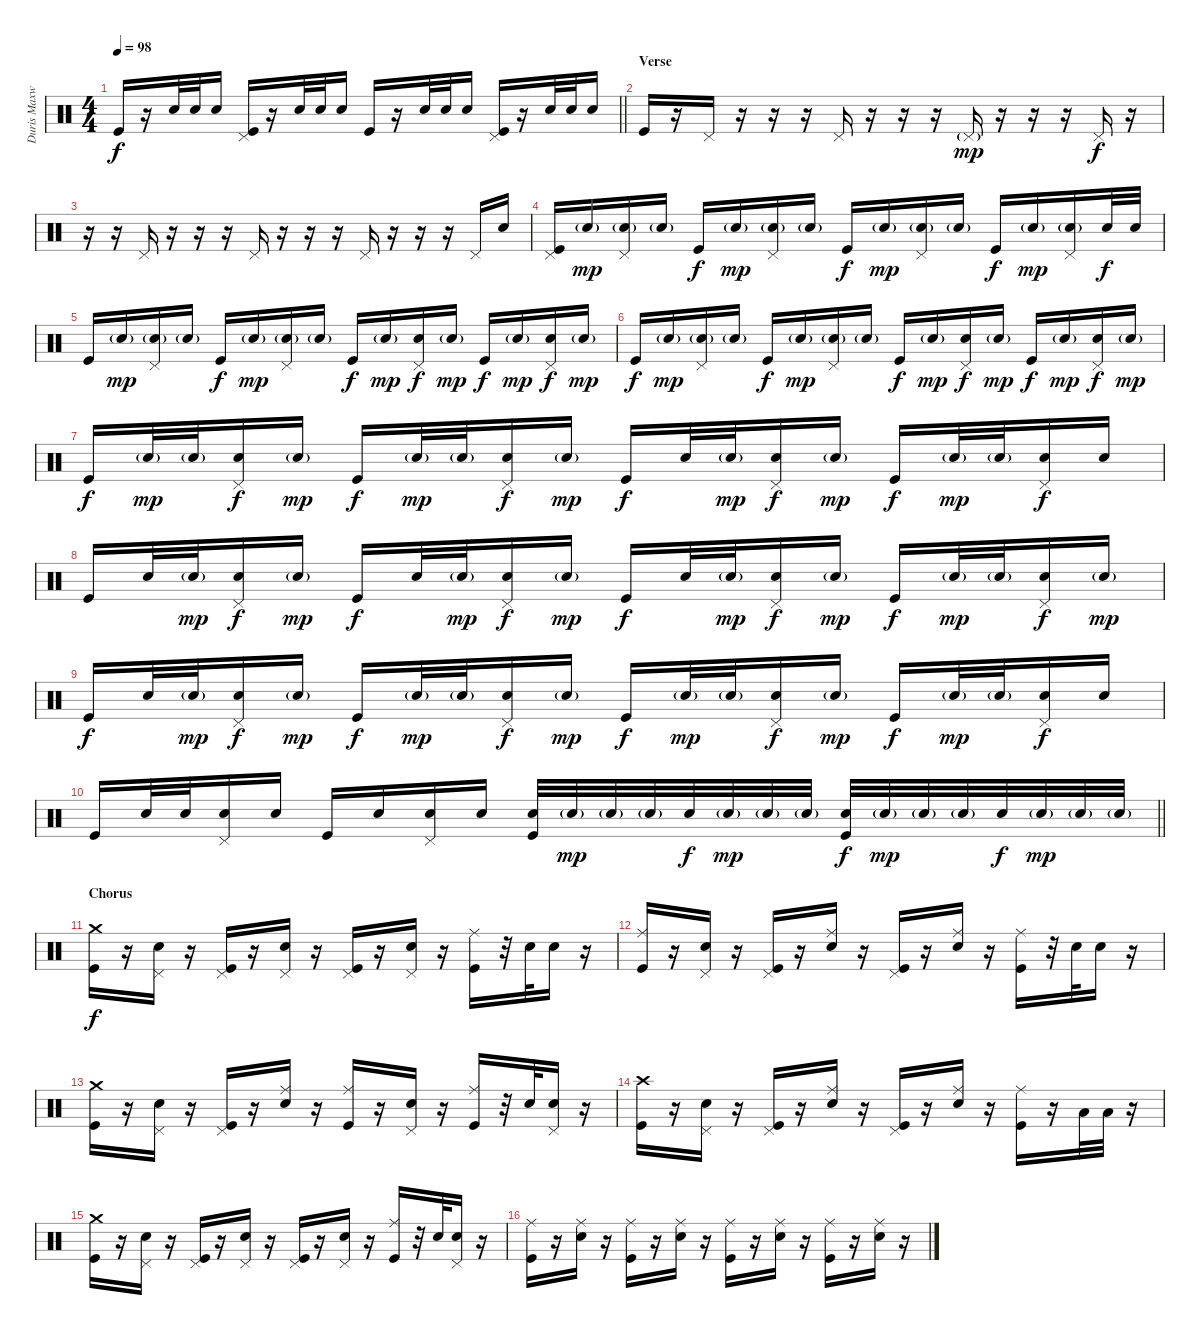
\track ("Duris Maxwell" "Duris Maxw") {instrument percussion}
\staff {score}
\articulation defaults
\ts (4 4)
\tempo 98
\clef neutral
\barLineRight lightlight
\ks c "Kick (hit)".16{dy f}
r.16 "Snare (hit) 2".32 "Snare (hit) 2".32 "Snare (hit) 2".16 ("Pedal Hi-Hat (hit)" "Kick (hit)").16 r.16 "Snare (hit) 2".32 "Snare (hit) 2".32 "Snare (hit) 2".16 "Kick (hit)".16 r.16 "Snare (hit) 2".32 "Snare (hit) 2".32 "Snare (hit) 2".16 ("Pedal Hi-Hat (hit)" "Kick (hit)").16 r.16 "Snare (hit) 2".32 "Snare (hit) 2".32 "Snare (hit) 2".16 |
\section ("" "Verse")
"Kick (hit)".16 r.16 "Pedal Hi-Hat (hit)".16 r.16 r.16 r.16 "Pedal Hi-Hat (hit)".16 r.16 r.16 r.16 "Pedal Hi-Hat (hit)"{g}.16{dy mp} r.16 r.16 r.16 "Pedal Hi-Hat (hit)".16{dy f} r.16 |
r.16 r.16 "Pedal Hi-Hat (hit)".16 r.16 r.16 r.16 "Pedal Hi-Hat (hit)".16 r.16 r.16 r.16 "Pedal Hi-Hat (hit)".16 r.16 r.16 r.16 "Pedal Hi-Hat (hit)".16 "Snare (hit) 2".16 |
("Pedal Hi-Hat (hit)" "Kick (hit)").16 "Snare (hit) 2"{g}.16{dy mp} ("Pedal Hi-Hat (hit)" "Snare (hit) 2"{g}).16 "Snare (hit) 2"{g}.16 "Kick (hit)".16{dy f} "Snare (hit) 2"{g}.16{dy mp} ("Pedal Hi-Hat (hit)" "Snare (hit) 2"{g}).16 "Snare (hit) 2"{g}.16 "Kick (hit)".16{dy f} "Snare (hit) 2"{g}.16{dy mp} ("Pedal Hi-Hat (hit)" "Snare (hit) 2"{g}).16 "Snare (hit) 2"{g}.16 "Kick (hit)".16{dy f} "Snare (hit) 2"{g}.16{dy mp} ("Pedal Hi-Hat (hit)" "Snare (hit) 2"{g}).16 "Snare (hit) 2".32{dy f} "Snare (hit) 2".32 |
"Kick (hit)".16 "Snare (hit) 2"{g}.16{dy mp} ("Pedal Hi-Hat (hit)" "Snare (hit) 2"{g}).16 "Snare (hit) 2"{g}.16 "Kick (hit)".16{dy f} "Snare (hit) 2"{g}.16{dy mp} ("Pedal Hi-Hat (hit)" "Snare (hit) 2"{g}).16 "Snare (hit) 2"{g}.16 "Kick (hit)".16{dy f} "Snare (hit) 2"{g}.16{dy mp} ("Pedal Hi-Hat (hit)" "Snare (hit) 2").16{dy f} "Snare (hit) 2"{g}.16{dy mp} "Kick (hit)".16{dy f} "Snare (hit) 2"{g}.16{dy mp} ("Pedal Hi-Hat (hit)" "Snare (hit) 2").16{dy f} "Snare (hit) 2"{g}.16{dy mp} |
"Kick (hit)".16{dy f} "Snare (hit) 2"{g}.16{dy mp} ("Pedal Hi-Hat (hit)" "Snare (hit) 2"{g}).16 "Snare (hit) 2"{g}.16 "Kick (hit)".16{dy f} "Snare (hit) 2"{g}.16{dy mp} ("Pedal Hi-Hat (hit)" "Snare (hit) 2"{g}).16 "Snare (hit) 2"{g}.16 "Kick (hit)".16{dy f} "Snare (hit) 2"{g}.16{dy mp} ("Pedal Hi-Hat (hit)" "Snare (hit) 2").16{dy f} "Snare (hit) 2"{g}.16{dy mp} "Kick (hit)".16{dy f} "Snare (hit) 2"{g}.16{dy mp} ("Pedal Hi-Hat (hit)" "Snare (hit) 2").16{dy f} "Snare (hit) 2"{g}.16{dy mp} |
"Kick (hit)".16{dy f} "Snare (hit) 2"{g}.32{dy mp} "Snare (hit) 2"{g}.32 ("Pedal Hi-Hat (hit)" "Snare (hit) 2").16{dy f} "Snare (hit) 2"{g}.16{dy mp} "Kick (hit)".16{dy f} "Snare (hit) 2"{g}.32{dy mp} "Snare (hit) 2"{g}.32 ("Pedal Hi-Hat (hit)" "Snare (hit) 2").16{dy f} "Snare (hit) 2"{g}.16{dy mp} "Kick (hit)".16{dy f} "Snare (hit) 2".32 "Snare (hit) 2"{g}.32{dy mp} ("Pedal Hi-Hat (hit)" "Snare (hit) 2").16{dy f} "Snare (hit) 2"{g}.16{dy mp} "Kick (hit)".16{dy f} "Snare (hit) 2"{g}.32{dy mp} "Snare (hit) 2"{g}.32 ("Pedal Hi-Hat (hit)" "Snare (hit) 2").16{dy f} "Snare (hit) 2".16 |
"Kick (hit)".16 "Snare (hit) 2".32 "Snare (hit) 2"{g}.32{dy mp} ("Pedal Hi-Hat (hit)" "Snare (hit) 2").16{dy f} "Snare (hit) 2"{g}.16{dy mp} "Kick (hit)".16{dy f} "Snare (hit) 2".32 "Snare (hit) 2"{g}.32{dy mp} ("Pedal Hi-Hat (hit)" "Snare (hit) 2").16{dy f} "Snare (hit) 2"{g}.16{dy mp} "Kick (hit)".16{dy f} "Snare (hit) 2".32 "Snare (hit) 2"{g}.32{dy mp} ("Pedal Hi-Hat (hit)" "Snare (hit) 2").16{dy f} "Snare (hit) 2"{g}.16{dy mp} "Kick (hit)".16{dy f} "Snare (hit) 2"{g}.32{dy mp} "Snare (hit) 2"{g}.32 ("Pedal Hi-Hat (hit)" "Snare (hit) 2").16{dy f} "Snare (hit) 2"{g}.16{dy mp} |
"Kick (hit)".16{dy f} "Snare (hit) 2".32 "Snare (hit) 2"{g}.32{dy mp} ("Pedal Hi-Hat (hit)" "Snare (hit) 2").16{dy f} "Snare (hit) 2"{g}.16{dy mp} "Kick (hit)".16{dy f} "Snare (hit) 2"{g}.32{dy mp} "Snare (hit) 2"{g}.32 ("Pedal Hi-Hat (hit)" "Snare (hit) 2").16{dy f} "Snare (hit) 2"{g}.16{dy mp} "Kick (hit)".16{dy f} "Snare (hit) 2"{g}.32{dy mp} "Snare (hit) 2"{g}.32 ("Pedal Hi-Hat (hit)" "Snare (hit) 2").16{dy f} "Snare (hit) 2"{g}.16{dy mp} "Kick (hit)".16{dy f} "Snare (hit) 2"{g}.32{dy mp} "Snare (hit) 2"{g}.32 ("Pedal Hi-Hat (hit)" "Snare (hit) 2").16{dy f} "Snare (hit) 2".16 |
\barLineRight lightlight "Kick (hit)".16 "Snare (hit) 2".32 "Snare (hit) 2".32
("Pedal Hi-Hat (hit)" "Snare (hit) 2").16 "Snare (hit) 2".16 "Kick (hit)".16 "Snare (hit) 2".16 ("Pedal Hi-Hat (hit)" "Snare (hit) 2").16 "Snare (hit) 2".16 ("Snare (hit) 2" "Kick (hit)").32 "Snare (hit) 2"{g}.32{dy mp} "Snare (hit) 2"{g}.32 "Snare (hit) 2"{g}.32 "Snare (hit) 2".32{dy f} "Snare (hit) 2"{g}.32{dy mp} "Snare (hit) 2"{g}.32 "Snare (hit) 2"{g}.32 ("Snare (hit) 2" "Kick (hit)").32{dy f} "Snare (hit) 2"{g}.32{dy mp} "Snare (hit) 2"{g}.32 "Snare (hit) 2"{g}.32 "Snare (hit) 2".32{dy f} "Snare (hit) 2"{g}.32{dy mp} "Snare (hit) 2"{g}.32 "Snare (hit) 2"{g}.32 |
\section ("" "Chorus")
("Crash medium (hit)" "Kick (hit)").16{dy f} r.16 ("Pedal Hi-Hat (hit)" "Snare (hit) 2").16 r.16 ("Pedal Hi-Hat (hit)" "Kick (hit)").16 r.16 ("Pedal Hi-Hat (hit)" "Snare (hit) 2").16 r.16 ("Pedal Hi-Hat (hit)" "Kick (hit)").16 r.16 ("Pedal Hi-Hat (hit)" "Snare (hit) 2").16 r.16 ("Ride (middle)" "Kick (hit)").16 r.32 "Snare (hit) 2".32 "Snare (hit) 2".16 r.16 |
("Ride (middle)" "Kick (hit)").16 r.16 ("Pedal Hi-Hat (hit)" "Snare (hit) 2").16 r.16 ("Pedal Hi-Hat (hit)" "Kick (hit)").16 r.16 ("Ride (middle)" "Snare (hit) 2").16 r.16 ("Pedal Hi-Hat (hit)" "Kick (hit)").16 r.16 ("Ride (middle)" "Snare (hit) 2").16 r.16 ("Ride (middle)" "Kick (hit)").16 r.32 "Snare (hit) 2".32 "Snare (hit) 2".16 r.16 |
("Crash medium (hit)" "Kick (hit)").16 r.16 ("Pedal Hi-Hat (hit)" "Snare (hit) 2").16 r.16 ("Pedal Hi-Hat (hit)" "Kick (hit)").16 r.16 ("Ride (middle)" "Snare (hit) 2").16 r.16 ("Ride (middle)" "Kick (hit)").16 r.16 ("Pedal Hi-Hat (hit)" "Snare (hit) 2").16 r.16 ("Ride (middle)" "Kick (hit)").16 r.32 "Snare (hit) 2".32 ("Pedal Hi-Hat (hit)" "Snare (hit) 2").16 r.16 |
("Crash high (hit)" "Kick (hit)").16 r.16 ("Pedal Hi-Hat (hit)" "Snare (hit) 2").16 r.16 ("Pedal Hi-Hat (hit)" "Kick (hit)").16 r.16 ("Ride (middle)" "Snare (hit) 2").16 r.16 ("Pedal Hi-Hat (hit)" "Kick (hit)").16 r.16 ("Ride (middle)" "Snare (hit) 2").16 r.16 ("Ride (middle)" "Kick (hit)").16 r.16 "Low Tom (hit)".32 "Low Tom (hit)".32 r.16 |
("Crash medium (hit)" "Kick (hit)").16 r.16 ("Pedal Hi-Hat (hit)" "Snare (hit) 2").16 r.16 ("Pedal Hi-Hat (hit)" "Kick (hit)").16 r.16 ("Pedal Hi-Hat (hit)" "Snare (hit) 2").16 r.16 ("Pedal Hi-Hat (hit)" "Kick (hit)").16 r.16 ("Pedal Hi-Hat (hit)" "Snare (hit) 2").16 r.16 ("Ride (middle)" "Kick (hit)").16 r.32 "Snare (hit) 2".32 ("Pedal Hi-Hat (hit)" "Snare (hit) 2").16 r.16 |
("Ride (middle)" "Kick (hit)").16 r.16 ("Ride (middle)" "Snare (hit) 2").16 r.16 ("Ride (middle)" "Kick (hit)").16 r.16 ("Ride (middle)" "Snare (hit) 2").16 r.16 ("Ride (middle)" "Kick (hit)").16 r.16 ("Ride (middle)" "Snare (hit) 2").16 r.16 ("Ride (middle)" "Kick (hit)").16 r.16 ("Ride (middle)" "Snare (hit) 2").16 r.16
